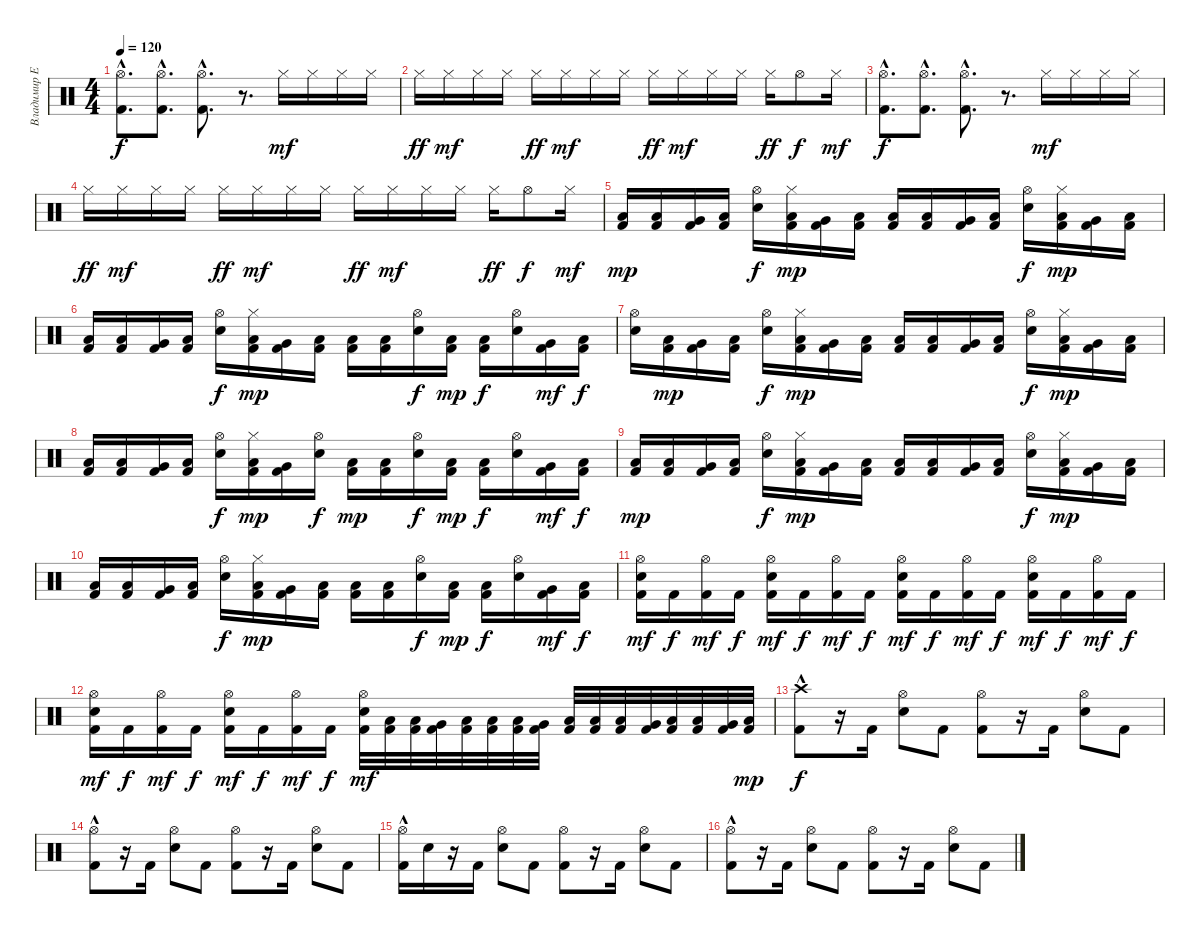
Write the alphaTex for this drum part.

\track ("Владимир Ермаков" "Владимир Е") {instrument percussion}
\staff {score}
\articulation defaults
\ts (4 4)
\tempo 120
\clef neutral
\ks c
("Hi-Hat (open)"{hac} "Kick (hit) 2"{hac}).8{d dy f} ("Hi-Hat (open)"{hac} "Kick (hit) 2"{hac}).8{d} ("Hi-Hat (open)"{hac} "Kick (hit) 2"{hac}).8{d} r.8{d} "Hi-Hat (closed)".16{dy mf} "Hi-Hat (closed)".16 "Hi-Hat (closed)".16 "Hi-Hat (closed)".16 |
"Hi-Hat (closed)".16{dy ff} "Hi-Hat (closed)".16{dy mf} "Hi-Hat (closed)".16 "Hi-Hat (closed)".16 "Hi-Hat (closed)".16{dy ff} "Hi-Hat (closed)".16{dy mf} "Hi-Hat (closed)".16 "Hi-Hat (closed)".16 "Hi-Hat (closed)".16{dy ff} "Hi-Hat (closed)".16{dy mf} "Hi-Hat (closed)".16 "Hi-Hat (closed)".16 "Hi-Hat (closed)".16{dy ff} "Hi-Hat (open)".8{dy f} "Hi-Hat (closed)".16{dy mf} |
("Hi-Hat (open)"{hac} "Kick (hit) 2"{hac}).8{d dy f} ("Hi-Hat (open)"{hac} "Kick (hit) 2"{hac}).8{d} ("Hi-Hat (open)"{hac} "Kick (hit) 2"{hac}).8{d} r.8{d} "Hi-Hat (closed)".16{dy mf} "Hi-Hat (closed)".16 "Hi-Hat (closed)".16 "Hi-Hat (closed)".16 |
"Hi-Hat (closed)".16{dy ff} "Hi-Hat (closed)".16{dy mf} "Hi-Hat (closed)".16 "Hi-Hat (closed)".16 "Hi-Hat (closed)".16{dy ff} "Hi-Hat (closed)".16{dy mf} "Hi-Hat (closed)".16 "Hi-Hat (closed)".16 "Hi-Hat (closed)".16{dy ff} "Hi-Hat (closed)".16{dy mf} "Hi-Hat (closed)".16 "Hi-Hat (closed)".16 "Hi-Hat (closed)".16{dy ff} "Hi-Hat (open)".8{dy f} "Hi-Hat (closed)".16{dy mf} |
("Kick (hit) 2" "Low Tom (hit)").16{dy mp} ("Kick (hit) 2" "Low Tom (hit)").16 ("Kick (hit) 2" "Very Low Tom (hit)").16 ("Kick (hit) 2" "Low Tom (hit)").16 ("Electric Snare (hit)" "Hi-Hat (open)").16{dy f} ("Kick (hit) 2" "Low Tom (hit)" "Hi-Hat (closed)").16{dy mp} ("Kick (hit) 2" "Very Low Tom (hit)").16 ("Kick (hit) 2" "Low Tom (hit)").16 ("Kick (hit) 2" "Low Tom (hit)").16 ("Kick (hit) 2" "Low Tom (hit)").16 ("Kick (hit) 2" "Very Low Tom (hit)").16 ("Kick (hit) 2" "Low Tom (hit)").16 ("Electric Snare (hit)" "Hi-Hat (open)").16{dy f} ("Kick (hit) 2" "Low Tom (hit)" "Hi-Hat (closed)").16{dy mp} ("Kick (hit) 2" "Very Low Tom (hit)").16 ("Kick (hit) 2" "Low Tom (hit)").16 |
("Kick (hit) 2" "Low Tom (hit)").16 ("Kick (hit) 2" "Low Tom (hit)").16 ("Kick (hit) 2" "Very Low Tom (hit)").16 ("Kick (hit) 2" "Low Tom (hit)").16 ("Electric Snare (hit)" "Hi-Hat (open)").16{dy f} ("Kick (hit) 2" "Low Tom (hit)" "Hi-Hat (closed)").16{dy mp} ("Kick (hit) 2" "Very Low Tom (hit)").16 ("Kick (hit) 2" "Low Tom (hit)").16 ("Kick (hit) 2" "Low Tom (hit)").16 ("Kick (hit) 2" "Low Tom (hit)").16 ("Electric Snare (hit)" "Hi-Hat (open)").16{dy f} ("Kick (hit) 2" "Low Tom (hit)").16{dy mp} ("Kick (hit) 2" "Low Tom (hit)").16{dy f} ("Electric Snare (hit)" "Hi-Hat (open)").16 ("Kick (hit) 2" "Very Low Tom (hit)").16{dy mf} ("Kick (hit) 2" "Low Tom (hit)").16{dy f} |
("Electric Snare (hit)" "Hi-Hat (open)").16 ("Kick (hit) 2" "Low Tom (hit)").16{dy mp} ("Kick (hit) 2" "Very Low Tom (hit)").16 ("Kick (hit) 2" "Low Tom (hit)").16 ("Electric Snare (hit)" "Hi-Hat (open)").16{dy f} ("Kick (hit) 2" "Low Tom (hit)" "Hi-Hat (closed)").16{dy mp} ("Kick (hit) 2" "Very Low Tom (hit)").16 ("Kick (hit) 2" "Low Tom (hit)").16 ("Kick (hit) 2" "Low Tom (hit)").16 ("Kick (hit) 2" "Low Tom (hit)").16 ("Kick (hit) 2" "Very Low Tom (hit)").16 ("Kick (hit) 2" "Low Tom (hit)").16 ("Electric Snare (hit)" "Hi-Hat (open)").16{dy f} ("Kick (hit) 2" "Low Tom (hit)" "Hi-Hat (closed)").16{dy mp} ("Kick (hit) 2" "Very Low Tom (hit)").16 ("Kick (hit) 2" "Low Tom (hit)").16 |
("Kick (hit) 2" "Low Tom (hit)").16 ("Kick (hit) 2" "Low Tom (hit)").16 ("Kick (hit) 2" "Very Low Tom (hit)").16 ("Kick (hit) 2" "Low Tom (hit)").16 ("Electric Snare (hit)" "Hi-Hat (open)").16{dy f} ("Kick (hit) 2" "Low Tom (hit)" "Hi-Hat (closed)").16{dy mp} ("Kick (hit) 2" "Very Low Tom (hit)").16 ("Electric Snare (hit)" "Hi-Hat (open)").16{dy f} ("Kick (hit) 2" "Low Tom (hit)").16{dy mp} ("Kick (hit) 2" "Low Tom (hit)").16 ("Electric Snare (hit)" "Hi-Hat (open)").16{dy f} ("Kick (hit) 2" "Low Tom (hit)").16{dy mp} ("Kick (hit) 2" "Low Tom (hit)").16{dy f} ("Electric Snare (hit)" "Hi-Hat (open)").16 ("Kick (hit) 2" "Very Low Tom (hit)").16{dy mf} ("Kick (hit) 2" "Low Tom (hit)").16{dy f} |
("Kick (hit) 2" "Low Tom (hit)").16{dy mp} ("Kick (hit) 2" "Low Tom (hit)").16 ("Kick (hit) 2" "Very Low Tom (hit)").16 ("Kick (hit) 2" "Low Tom (hit)").16 ("Electric Snare (hit)" "Hi-Hat (open)").16{dy f} ("Kick (hit) 2" "Low Tom (hit)" "Hi-Hat (closed)").16{dy mp} ("Kick (hit) 2" "Very Low Tom (hit)").16 ("Kick (hit) 2" "Low Tom (hit)").16 ("Kick (hit) 2" "Low Tom (hit)").16 ("Kick (hit) 2" "Low Tom (hit)").16 ("Kick (hit) 2" "Very Low Tom (hit)").16 ("Kick (hit) 2" "Low Tom (hit)").16 ("Electric Snare (hit)" "Hi-Hat (open)").16{dy f} ("Kick (hit) 2" "Low Tom (hit)" "Hi-Hat (closed)").16{dy mp} ("Kick (hit) 2" "Very Low Tom (hit)").16 ("Kick (hit) 2" "Low Tom (hit)").16 |
("Kick (hit) 2" "Low Tom (hit)").16 ("Kick (hit) 2" "Low Tom (hit)").16 ("Kick (hit) 2" "Very Low Tom (hit)").16 ("Kick (hit) 2" "Low Tom (hit)").16 ("Electric Snare (hit)" "Hi-Hat (open)").16{dy f} ("Kick (hit) 2" "Low Tom (hit)" "Hi-Hat (closed)").16{dy mp} ("Kick (hit) 2" "Very Low Tom (hit)").16 ("Kick (hit) 2" "Low Tom (hit)").16 ("Kick (hit) 2" "Low Tom (hit)").16 ("Kick (hit) 2" "Low Tom (hit)").16 ("Electric Snare (hit)" "Hi-Hat (open)").16{dy f} ("Kick (hit) 2" "Low Tom (hit)").16{dy mp} ("Kick (hit) 2" "Low Tom (hit)").16{dy f} ("Electric Snare (hit)" "Hi-Hat (open)").16 ("Kick (hit) 2" "Very Low Tom (hit)").16{dy mf} ("Kick (hit) 2" "Low Tom (hit)").16{dy f} |
("Kick (hit) 2" "Electric Snare (hit)" "Hi-Hat (open)").16{dy mf} "Kick (hit) 2".16{dy f} ("Kick (hit) 2" "Hi-Hat (open)").16{dy mf} "Kick (hit) 2".16{dy f} ("Kick (hit) 2" "Electric Snare (hit)" "Hi-Hat (open)").16{dy mf} "Kick (hit) 2".16{dy f} ("Kick (hit) 2" "Hi-Hat (open)").16{dy mf} "Kick (hit) 2".16{dy f} ("Kick (hit) 2" "Electric Snare (hit)" "Hi-Hat (open)").16{dy mf} "Kick (hit) 2".16{dy f} ("Kick (hit) 2" "Hi-Hat (open)").16{dy mf} "Kick (hit) 2".16{dy f} ("Kick (hit) 2" "Electric Snare (hit)" "Hi-Hat (open)").16{dy mf} "Kick (hit) 2".16{dy f} ("Kick (hit) 2" "Hi-Hat (open)").16{dy mf} "Kick (hit) 2".16{dy f} |
("Kick (hit) 2" "Electric Snare (hit)" "Hi-Hat (open)").16{dy mf} "Kick (hit) 2".16{dy f} ("Kick (hit) 2" "Hi-Hat (open)").16{dy mf} "Kick (hit) 2".16{dy f} ("Kick (hit) 2" "Electric Snare (hit)" "Hi-Hat (open)").16{dy mf} "Kick (hit) 2".16{dy f} ("Kick (hit) 2" "Hi-Hat (open)").16{dy mf} "Kick (hit) 2".16{dy f} ("Kick (hit) 2" "Electric Snare (hit)" "Hi-Hat (open)").32{dy mf} ("Kick (hit) 2" "Low Tom (hit)").32 ("Kick (hit) 2" "Low Tom (hit)").32 ("Kick (hit) 2" "Very Low Tom (hit)").32 ("Kick (hit) 2" "Low Tom (hit)").32 ("Kick (hit) 2" "Low Tom (hit)").32 ("Kick (hit) 2" "Low Tom (hit)").32 ("Kick (hit) 2" "Very Low Tom (hit)").32 ("Kick (hit) 2" "Low Tom (hit)").32 ("Kick (hit) 2" "Low Tom (hit)").32 ("Kick (hit) 2" "Low Tom (hit)").32 ("Kick (hit) 2" "Very Low Tom (hit)").32 ("Kick (hit) 2" "Low Tom (hit)").32 ("Kick (hit) 2" "Low Tom (hit)").32 ("Kick (hit) 2" "Very Low Tom (hit)").32 ("Kick (hit) 2" "Low Floor Tom (hit)").32{dy mp} |
("Crash high (hit)" "Kick (hit) 2"{hac}).8{dy f} r.16 "Kick (hit) 2".16 ("Hi-Hat (open)" "Electric Snare (hit)").8 "Kick (hit) 2".8 ("Hi-Hat (open)" "Kick (hit) 2").8 r.16 "Kick (hit) 2".16 ("Hi-Hat (open)" "Electric Snare (hit)").8 "Kick (hit) 2".8 |
("Hi-Hat (open)" "Kick (hit) 2"{hac}).8 r.16 "Kick (hit) 2".16 ("Hi-Hat (open)" "Electric Snare (hit)").8 "Kick (hit) 2".8 ("Hi-Hat (open)" "Kick (hit) 2").8 r.16 "Kick (hit) 2".16 ("Hi-Hat (open)" "Electric Snare (hit)").8 "Kick (hit) 2".8 |
("Hi-Hat (open)" "Kick (hit) 2"{hac}).16 "Electric Snare (hit)".16 r.16 "Kick (hit) 2".16 ("Hi-Hat (open)" "Electric Snare (hit)").8 "Kick (hit) 2".8 ("Hi-Hat (open)" "Kick (hit) 2").8 r.16 "Kick (hit) 2".16 ("Hi-Hat (open)" "Electric Snare (hit)").8 "Kick (hit) 2".8 |
("Hi-Hat (open)" "Kick (hit) 2"{hac}).8 r.16 "Kick (hit) 2".16 ("Hi-Hat (open)" "Electric Snare (hit)").8 "Kick (hit) 2".8 ("Hi-Hat (open)" "Kick (hit) 2").8 r.16 "Kick (hit) 2".16 ("Hi-Hat (open)" "Electric Snare (hit)").8 "Kick (hit) 2".8
